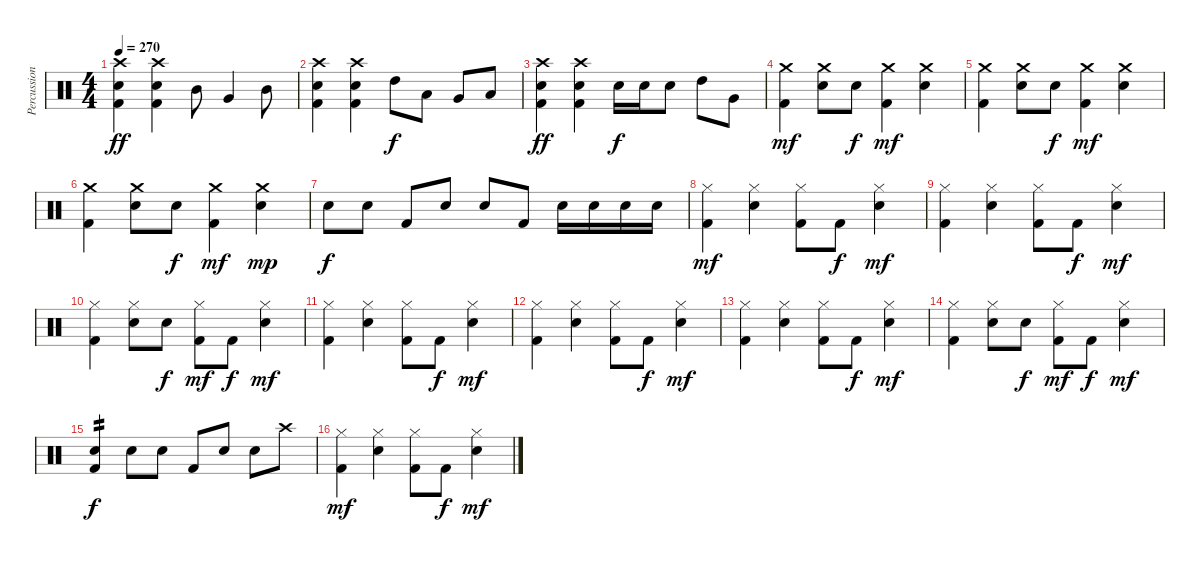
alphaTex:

\track ("Percussion" "Percussion") {instrument percussion}
\staff {score}
\articulation defaults
\ts (4 4)
\tempo 270
\clef neutral
\ks c
("Crash high (hit)" "Electric Snare (hit)" "Kick (hit) 2").4{dy ff} ("Crash high (hit)" "Electric Snare (hit)" "Kick (hit) 2").4 "Mid Tom (hit)".8 "Very Low Tom (hit)".4 "Mid Tom (hit)".8 |
("Crash high (hit)" "Electric Snare (hit)" "Kick (hit) 2").4 ("Crash high (hit)" "Electric Snare (hit)" "Kick (hit) 2").4 "High Tom (hit)".8{dy f} "Low Tom (hit)".8 "Very Low Tom (hit)".8 "Low Floor Tom (hit)".8 |
("Crash high (hit)" "Electric Snare (hit)" "Kick (hit) 2").4{dy ff} ("Crash high (hit)" "Electric Snare (hit)" "Kick (hit) 2").4 "Electric Snare (hit)".16{dy f} "Electric Snare (hit)".16 "Electric Snare (hit)".8 "High Tom (hit)".8 "Very Low Tom (hit)".8 |
("Crash medium (hit)" "Kick (hit) 2").4{dy mf} ("Crash medium (hit)" "Electric Snare (hit)").8 "Electric Snare (hit)".8{dy f} ("Crash medium (hit)" "Kick (hit) 2").4{dy mf} ("Crash medium (hit)" "Electric Snare (hit)").4 |
("Crash medium (hit)" "Kick (hit) 2").4 ("Crash medium (hit)" "Electric Snare (hit)").8 "Electric Snare (hit)".8{dy f} ("Crash medium (hit)" "Kick (hit) 2").4{dy mf} ("Crash medium (hit)" "Electric Snare (hit)").4 |
("Crash medium (hit)" "Kick (hit) 2").4 ("Crash medium (hit)" "Electric Snare (hit)").8 "Electric Snare (hit)".8{dy f} ("Crash medium (hit)" "Kick (hit) 2").4{dy mf} ("Crash medium (hit)" "Electric Snare (hit)").4{dy mp} |
"Electric Snare (hit)".8{dy f} "Electric Snare (hit)".8 "Kick (hit) 2".8 "Electric Snare (hit)".8 "Electric Snare (hit)".8 "Kick (hit) 2".8 "Electric Snare (hit)".16 "Electric Snare (hit)".16 "Electric Snare (hit)".16 "Electric Snare (hit)".16 |
("Hi-Hat (closed)" "Kick (hit) 2").4{dy mf} ("Hi-Hat (closed)" "Electric Snare (hit)").4 ("Hi-Hat (closed)" "Kick (hit) 2").8 "Kick (hit) 2".8{dy f} ("Hi-Hat (closed)" "Electric Snare (hit)").4{dy mf} |
("Hi-Hat (closed)" "Kick (hit) 2").4 ("Hi-Hat (closed)" "Electric Snare (hit)").4 ("Hi-Hat (closed)" "Kick (hit) 2").8 "Kick (hit) 2".8{dy f} ("Hi-Hat (closed)" "Electric Snare (hit)").4{dy mf} |
("Hi-Hat (closed)" "Kick (hit) 2").4 ("Hi-Hat (closed)" "Electric Snare (hit)").8 "Electric Snare (hit)".8{dy f} ("Hi-Hat (closed)" "Kick (hit) 2").8{dy mf} "Kick (hit) 2".8{dy f} ("Hi-Hat (closed)" "Electric Snare (hit)").4{dy mf} |
("Hi-Hat (closed)" "Kick (hit) 2").4 ("Hi-Hat (closed)" "Electric Snare (hit)").4 ("Hi-Hat (closed)" "Kick (hit) 2").8 "Kick (hit) 2".8{dy f} ("Hi-Hat (closed)" "Electric Snare (hit)").4{dy mf} |
("Hi-Hat (closed)" "Kick (hit) 2").4 ("Hi-Hat (closed)" "Electric Snare (hit)").4 ("Hi-Hat (closed)" "Kick (hit) 2").8 "Kick (hit) 2".8{dy f} ("Hi-Hat (closed)" "Electric Snare (hit)").4{dy mf} |
("Hi-Hat (closed)" "Kick (hit) 2").4 ("Hi-Hat (closed)" "Electric Snare (hit)").4 ("Hi-Hat (closed)" "Kick (hit) 2").8 "Kick (hit) 2".8{dy f} ("Hi-Hat (closed)" "Electric Snare (hit)").4{dy mf} |
("Hi-Hat (closed)" "Kick (hit) 2").4 ("Hi-Hat (closed)" "Electric Snare (hit)").8 "Electric Snare (hit)".8{dy f} ("Hi-Hat (closed)" "Kick (hit) 2").8{dy mf} "Kick (hit) 2".8{dy f} ("Hi-Hat (closed)" "Electric Snare (hit)").4{dy mf} |
("Electric Snare (hit)" "Kick (hit) 2").4{tp 2 dy f} "Electric Snare (hit)".8 "Electric Snare (hit)".8 "Kick (hit) 2".8 "Electric Snare (hit)".8 "Electric Snare (hit)".8 "Crash high (hit)".8 |
("Hi-Hat (closed)" "Kick (hit) 2").4{dy mf} ("Hi-Hat (closed)" "Electric Snare (hit)").4 ("Hi-Hat (closed)" "Kick (hit) 2").8 "Kick (hit) 2".8{dy f} ("Hi-Hat (closed)" "Electric Snare (hit)").4{dy mf}
